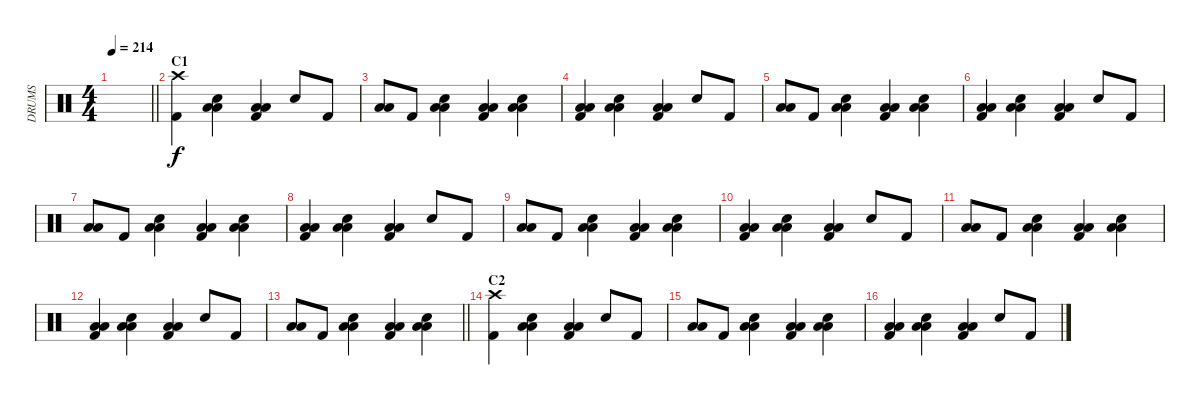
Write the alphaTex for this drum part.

\track ("DRUMS" "DRUMS") {instrument percussion}
\staff {score}
\articulation defaults
\ts (4 4)
\tempo 214
\clef neutral
\barLineRight lightlight
\ks c
|
\section ("" "C1")
("Crash high (hit)" "Kick (hit) 2").4 ("Snare (hit) 2" "Low Tom (hit)" "Low Tom (hit)").4 ("Kick (hit) 2" "Low Tom (hit)" "Low Tom (hit)").4 "Snare (hit) 2".8 "Kick (hit) 2".8 |
("Low Tom (hit)" "Low Tom (hit)").8 "Kick (hit) 2".8 ("Low Tom (hit)" "Snare (hit) 2" "Low Tom (hit)").4 ("Low Tom (hit)" "Kick (hit) 2" "Low Tom (hit)").4 ("Low Tom (hit)" "Snare (hit) 2" "Low Tom (hit)").4 |
("Low Tom (hit)" "Kick (hit) 2" "Low Tom (hit)").4 ("Low Tom (hit)" "Snare (hit) 2" "Low Tom (hit)").4 ("Low Tom (hit)" "Kick (hit) 2" "Low Tom (hit)").4 "Snare (hit) 2".8 "Kick (hit) 2".8 |
("Low Tom (hit)" "Low Tom (hit)").8 "Kick (hit) 2".8 ("Low Tom (hit)" "Snare (hit) 2" "Low Tom (hit)").4 ("Low Tom (hit)" "Kick (hit) 2" "Low Tom (hit)").4 ("Low Tom (hit)" "Snare (hit) 2" "Low Tom (hit)").4 |
("Low Tom (hit)" "Kick (hit) 2" "Low Tom (hit)").4 ("Low Tom (hit)" "Snare (hit) 2" "Low Tom (hit)").4 ("Low Tom (hit)" "Kick (hit) 2" "Low Tom (hit)").4 "Snare (hit) 2".8 "Kick (hit) 2".8 |
("Low Tom (hit)" "Low Tom (hit)").8 "Kick (hit) 2".8 ("Low Tom (hit)" "Snare (hit) 2" "Low Tom (hit)").4 ("Low Tom (hit)" "Kick (hit) 2" "Low Tom (hit)").4 ("Low Tom (hit)" "Snare (hit) 2" "Low Tom (hit)").4 |
("Low Tom (hit)" "Kick (hit) 2" "Low Tom (hit)").4 ("Low Tom (hit)" "Snare (hit) 2" "Low Tom (hit)").4 ("Low Tom (hit)" "Kick (hit) 2" "Low Tom (hit)").4 "Snare (hit) 2".8 "Kick (hit) 2".8 |
("Low Tom (hit)" "Low Tom (hit)").8 "Kick (hit) 2".8 ("Low Tom (hit)" "Snare (hit) 2" "Low Tom (hit)").4 ("Low Tom (hit)" "Kick (hit) 2" "Low Tom (hit)").4 ("Low Tom (hit)" "Snare (hit) 2" "Low Tom (hit)").4 |
("Low Tom (hit)" "Kick (hit) 2" "Low Tom (hit)").4 ("Low Tom (hit)" "Snare (hit) 2" "Low Tom (hit)").4 ("Low Tom (hit)" "Kick (hit) 2" "Low Tom (hit)").4 "Snare (hit) 2".8 "Kick (hit) 2".8 |
("Low Tom (hit)" "Low Tom (hit)").8 "Kick (hit) 2".8 ("Low Tom (hit)" "Snare (hit) 2" "Low Tom (hit)").4 ("Low Tom (hit)" "Kick (hit) 2" "Low Tom (hit)").4 ("Low Tom (hit)" "Snare (hit) 2" "Low Tom (hit)").4 |
("Low Tom (hit)" "Kick (hit) 2" "Low Tom (hit)").4 ("Low Tom (hit)" "Snare (hit) 2" "Low Tom (hit)").4 ("Low Tom (hit)" "Kick (hit) 2" "Low Tom (hit)").4 "Snare (hit) 2".8 "Kick (hit) 2".8 |
\barLineRight lightlight
("Low Tom (hit)" "Low Tom (hit)").8 "Kick (hit) 2".8 ("Low Tom (hit)" "Snare (hit) 2" "Low Tom (hit)").4 ("Low Tom (hit)" "Kick (hit) 2" "Low Tom (hit)").4 ("Low Tom (hit)" "Snare (hit) 2" "Low Tom (hit)").4 |
\section ("" "C2")
("Crash high (hit)" "Kick (hit) 2").4 ("Snare (hit) 2" "Low Tom (hit)" "Low Tom (hit)").4 ("Kick (hit) 2" "Low Tom (hit)" "Low Tom (hit)").4 "Snare (hit) 2".8 "Kick (hit) 2".8 |
("Low Tom (hit)" "Low Tom (hit)").8 "Kick (hit) 2".8 ("Low Tom (hit)" "Snare (hit) 2" "Low Tom (hit)").4 ("Low Tom (hit)" "Kick (hit) 2" "Low Tom (hit)").4 ("Low Tom (hit)" "Snare (hit) 2" "Low Tom (hit)").4 |
("Low Tom (hit)" "Kick (hit) 2" "Low Tom (hit)").4 ("Low Tom (hit)" "Snare (hit) 2" "Low Tom (hit)").4 ("Low Tom (hit)" "Kick (hit) 2" "Low Tom (hit)").4 "Snare (hit) 2".8 "Kick (hit) 2".8
